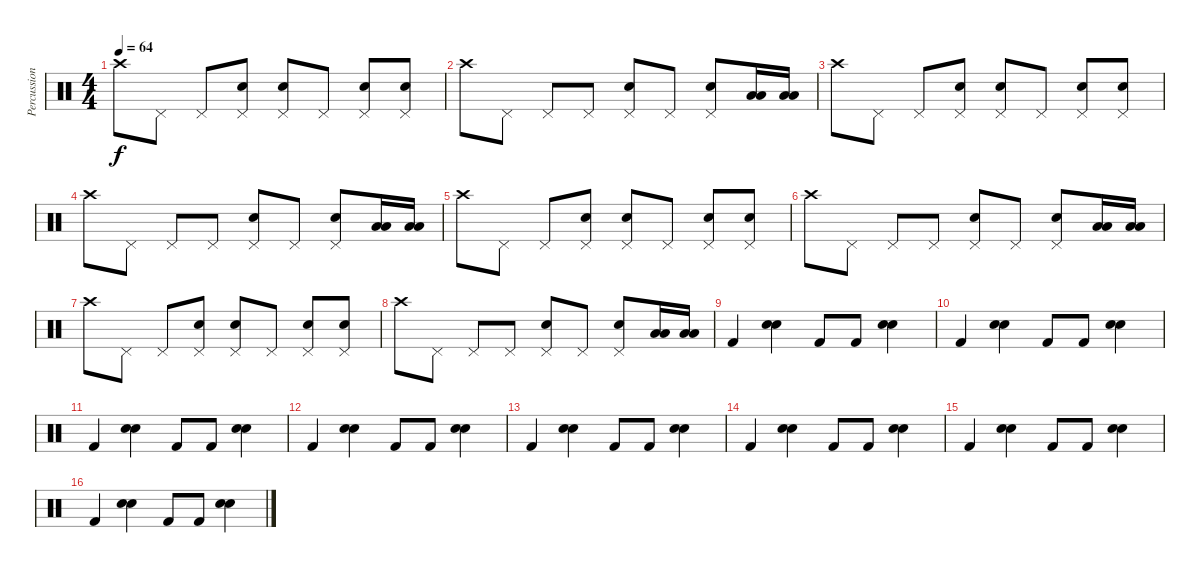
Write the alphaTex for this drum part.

\track ("Percussion" "Percussion") {instrument percussion}
\staff {score}
\articulation defaults
\ts (4 4)
\tempo 64
\clef neutral
\ks c "Crash high (hit)".8{dy f} "Pedal Hi-Hat (hit)".8 "Pedal Hi-Hat (hit)".8
("Pedal Hi-Hat (hit)" "Electric Snare (hit)").8 ("Pedal Hi-Hat (hit)" "Electric Snare (hit)").8 "Pedal Hi-Hat (hit)".8 ("Pedal Hi-Hat (hit)" "Electric Snare (hit)").8 ("Pedal Hi-Hat (hit)" "Electric Snare (hit)").8 |
"Crash high (hit)".8 "Pedal Hi-Hat (hit)".8 "Pedal Hi-Hat (hit)".8 "Pedal Hi-Hat (hit)".8 ("Pedal Hi-Hat (hit)" "Electric Snare (hit)").8 "Pedal Hi-Hat (hit)".8 ("Pedal Hi-Hat (hit)" "Electric Snare (hit)").8 ("Low Tom (hit)" "Low Tom (hit)").16 ("Low Tom (hit)" "Low Tom (hit)").16 |
"Crash high (hit)".8 "Pedal Hi-Hat (hit)".8 "Pedal Hi-Hat (hit)".8 ("Pedal Hi-Hat (hit)" "Electric Snare (hit)").8 ("Pedal Hi-Hat (hit)" "Electric Snare (hit)").8 "Pedal Hi-Hat (hit)".8 ("Pedal Hi-Hat (hit)" "Electric Snare (hit)").8 ("Pedal Hi-Hat (hit)" "Electric Snare (hit)").8 |
"Crash high (hit)".8 "Pedal Hi-Hat (hit)".8 "Pedal Hi-Hat (hit)".8 "Pedal Hi-Hat (hit)".8 ("Pedal Hi-Hat (hit)" "Electric Snare (hit)").8 "Pedal Hi-Hat (hit)".8 ("Pedal Hi-Hat (hit)" "Electric Snare (hit)").8 ("Low Tom (hit)" "Low Tom (hit)").16 ("Low Tom (hit)" "Low Tom (hit)").16 |
"Crash high (hit)".8 "Pedal Hi-Hat (hit)".8 "Pedal Hi-Hat (hit)".8 ("Pedal Hi-Hat (hit)" "Electric Snare (hit)").8 ("Pedal Hi-Hat (hit)" "Electric Snare (hit)").8 "Pedal Hi-Hat (hit)".8 ("Pedal Hi-Hat (hit)" "Electric Snare (hit)").8 ("Pedal Hi-Hat (hit)" "Electric Snare (hit)").8 |
"Crash high (hit)".8 "Pedal Hi-Hat (hit)".8 "Pedal Hi-Hat (hit)".8 "Pedal Hi-Hat (hit)".8 ("Pedal Hi-Hat (hit)" "Electric Snare (hit)").8 "Pedal Hi-Hat (hit)".8 ("Pedal Hi-Hat (hit)" "Electric Snare (hit)").8 ("Low Tom (hit)" "Low Tom (hit)").16 ("Low Tom (hit)" "Low Tom (hit)").16 |
"Crash high (hit)".8 "Pedal Hi-Hat (hit)".8 "Pedal Hi-Hat (hit)".8 ("Pedal Hi-Hat (hit)" "Electric Snare (hit)").8 ("Pedal Hi-Hat (hit)" "Electric Snare (hit)").8 "Pedal Hi-Hat (hit)".8 ("Pedal Hi-Hat (hit)" "Electric Snare (hit)").8 ("Pedal Hi-Hat (hit)" "Electric Snare (hit)").8 |
"Crash high (hit)".8 "Pedal Hi-Hat (hit)".8 "Pedal Hi-Hat (hit)".8 "Pedal Hi-Hat (hit)".8 ("Pedal Hi-Hat (hit)" "Electric Snare (hit)").8 "Pedal Hi-Hat (hit)".8 ("Pedal Hi-Hat (hit)" "Electric Snare (hit)").8 ("Low Tom (hit)" "Low Tom (hit)").16 ("Low Tom (hit)" "Low Tom (hit)").16 |
"Kick (hit) 2".4 ("Snare (hit) 2" "Electric Snare (hit)").4 "Kick (hit) 2".8 "Kick (hit) 2".8 ("Snare (hit) 2" "Electric Snare (hit)").4 |
"Kick (hit) 2".4 ("Snare (hit) 2" "Electric Snare (hit)").4 "Kick (hit) 2".8 "Kick (hit) 2".8 ("Snare (hit) 2" "Electric Snare (hit)").4 |
"Kick (hit) 2".4 ("Snare (hit) 2" "Electric Snare (hit)").4 "Kick (hit) 2".8 "Kick (hit) 2".8 ("Snare (hit) 2" "Electric Snare (hit)").4 |
"Kick (hit) 2".4 ("Snare (hit) 2" "Electric Snare (hit)").4 "Kick (hit) 2".8 "Kick (hit) 2".8 ("Snare (hit) 2" "Electric Snare (hit)").4 |
"Kick (hit) 2".4 ("Snare (hit) 2" "Electric Snare (hit)").4 "Kick (hit) 2".8 "Kick (hit) 2".8 ("Snare (hit) 2" "Electric Snare (hit)").4 |
"Kick (hit) 2".4 ("Snare (hit) 2" "Electric Snare (hit)").4 "Kick (hit) 2".8 "Kick (hit) 2".8 ("Snare (hit) 2" "Electric Snare (hit)").4 |
"Kick (hit) 2".4 ("Snare (hit) 2" "Electric Snare (hit)").4 "Kick (hit) 2".8 "Kick (hit) 2".8 ("Snare (hit) 2" "Electric Snare (hit)").4 |
"Kick (hit) 2".4 ("Snare (hit) 2" "Electric Snare (hit)").4 "Kick (hit) 2".8 "Kick (hit) 2".8 ("Snare (hit) 2" "Electric Snare (hit)").4
